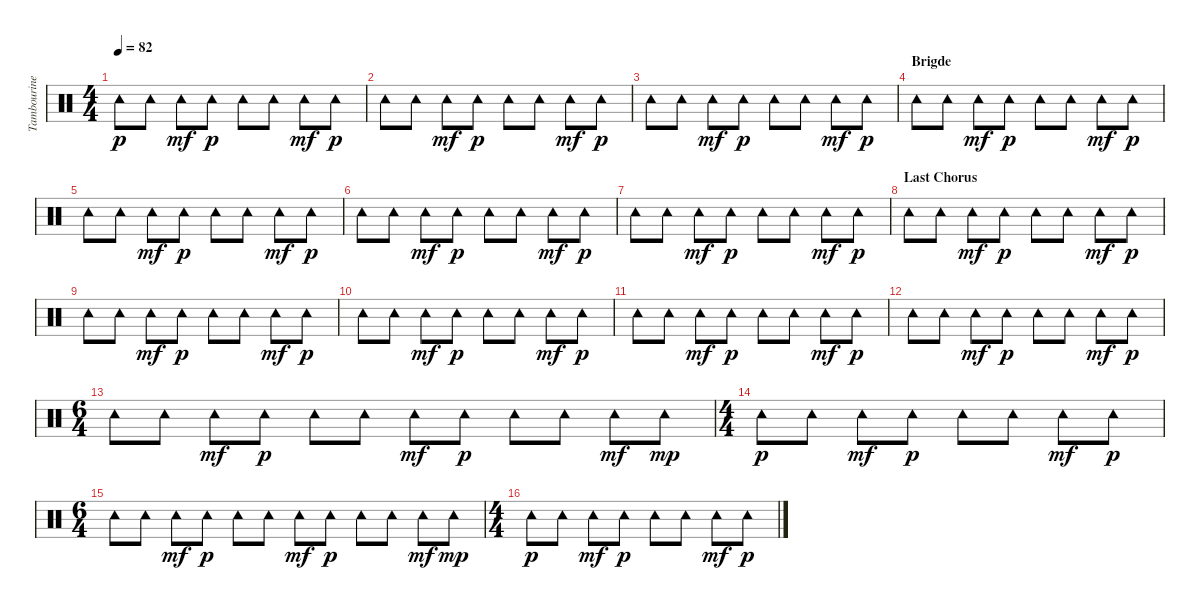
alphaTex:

\track ("Tambourine" "Tambourine") {instrument percussion}
\staff {score}
\articulation defaults
\ts (4 4)
\tempo 82
\clef neutral
\ks c "Tambourine (hit)".8{dy p} "Tambourine (hit)".8 "Tambourine (hit)".8{dy mf} "Tambourine (hit)".8{dy p} "Tambourine (hit)".8 "Tambourine (hit)".8 "Tambourine (hit)".8{dy mf} "Tambourine (hit)".8{dy p}
|
"Tambourine (hit)".8 "Tambourine (hit)".8 "Tambourine (hit)".8{dy mf} "Tambourine (hit)".8{dy p} "Tambourine (hit)".8 "Tambourine (hit)".8 "Tambourine (hit)".8{dy mf} "Tambourine (hit)".8{dy p} |
"Tambourine (hit)".8 "Tambourine (hit)".8 "Tambourine (hit)".8{dy mf} "Tambourine (hit)".8{dy p} "Tambourine (hit)".8 "Tambourine (hit)".8 "Tambourine (hit)".8{dy mf} "Tambourine (hit)".8{dy p} |
\section ("" "Brigde")
"Tambourine (hit)".8 "Tambourine (hit)".8 "Tambourine (hit)".8{dy mf} "Tambourine (hit)".8{dy p} "Tambourine (hit)".8 "Tambourine (hit)".8 "Tambourine (hit)".8{dy mf} "Tambourine (hit)".8{dy p} |
"Tambourine (hit)".8 "Tambourine (hit)".8 "Tambourine (hit)".8{dy mf} "Tambourine (hit)".8{dy p} "Tambourine (hit)".8 "Tambourine (hit)".8 "Tambourine (hit)".8{dy mf} "Tambourine (hit)".8{dy p} |
"Tambourine (hit)".8 "Tambourine (hit)".8 "Tambourine (hit)".8{dy mf} "Tambourine (hit)".8{dy p} "Tambourine (hit)".8 "Tambourine (hit)".8 "Tambourine (hit)".8{dy mf} "Tambourine (hit)".8{dy p} |
"Tambourine (hit)".8 "Tambourine (hit)".8 "Tambourine (hit)".8{dy mf} "Tambourine (hit)".8{dy p} "Tambourine (hit)".8 "Tambourine (hit)".8 "Tambourine (hit)".8{dy mf} "Tambourine (hit)".8{dy p} |
\section ("" "Last Chorus")
"Tambourine (hit)".8 "Tambourine (hit)".8 "Tambourine (hit)".8{dy mf} "Tambourine (hit)".8{dy p} "Tambourine (hit)".8 "Tambourine (hit)".8 "Tambourine (hit)".8{dy mf} "Tambourine (hit)".8{dy p} |
"Tambourine (hit)".8 "Tambourine (hit)".8 "Tambourine (hit)".8{dy mf} "Tambourine (hit)".8{dy p} "Tambourine (hit)".8 "Tambourine (hit)".8 "Tambourine (hit)".8{dy mf} "Tambourine (hit)".8{dy p} |
"Tambourine (hit)".8 "Tambourine (hit)".8 "Tambourine (hit)".8{dy mf} "Tambourine (hit)".8{dy p} "Tambourine (hit)".8 "Tambourine (hit)".8 "Tambourine (hit)".8{dy mf} "Tambourine (hit)".8{dy p} |
"Tambourine (hit)".8 "Tambourine (hit)".8 "Tambourine (hit)".8{dy mf} "Tambourine (hit)".8{dy p} "Tambourine (hit)".8 "Tambourine (hit)".8 "Tambourine (hit)".8{dy mf} "Tambourine (hit)".8{dy p} |
"Tambourine (hit)".8 "Tambourine (hit)".8 "Tambourine (hit)".8{dy mf} "Tambourine (hit)".8{dy p} "Tambourine (hit)".8 "Tambourine (hit)".8 "Tambourine (hit)".8{dy mf} "Tambourine (hit)".8{dy p} |
\ts (6 4)
"Tambourine (hit)".8 "Tambourine (hit)".8 "Tambourine (hit)".8{dy mf} "Tambourine (hit)".8{dy p} "Tambourine (hit)".8 "Tambourine (hit)".8 "Tambourine (hit)".8{dy mf} "Tambourine (hit)".8{dy p} "Tambourine (hit)".8 "Tambourine (hit)".8 "Tambourine (hit)".8{dy mf} "Tambourine (hit)".8{dy mp} |
\ts (4 4)
"Tambourine (hit)".8{dy p} "Tambourine (hit)".8 "Tambourine (hit)".8{dy mf} "Tambourine (hit)".8{dy p} "Tambourine (hit)".8 "Tambourine (hit)".8 "Tambourine (hit)".8{dy mf} "Tambourine (hit)".8{dy p} |
\ts (6 4)
"Tambourine (hit)".8 "Tambourine (hit)".8 "Tambourine (hit)".8{dy mf} "Tambourine (hit)".8{dy p} "Tambourine (hit)".8 "Tambourine (hit)".8 "Tambourine (hit)".8{dy mf} "Tambourine (hit)".8{dy p} "Tambourine (hit)".8 "Tambourine (hit)".8 "Tambourine (hit)".8{dy mf} "Tambourine (hit)".8{dy mp} |
\ts (4 4)
"Tambourine (hit)".8{dy p} "Tambourine (hit)".8 "Tambourine (hit)".8{dy mf} "Tambourine (hit)".8{dy p} "Tambourine (hit)".8 "Tambourine (hit)".8 "Tambourine (hit)".8{dy mf} "Tambourine (hit)".8{dy p}
